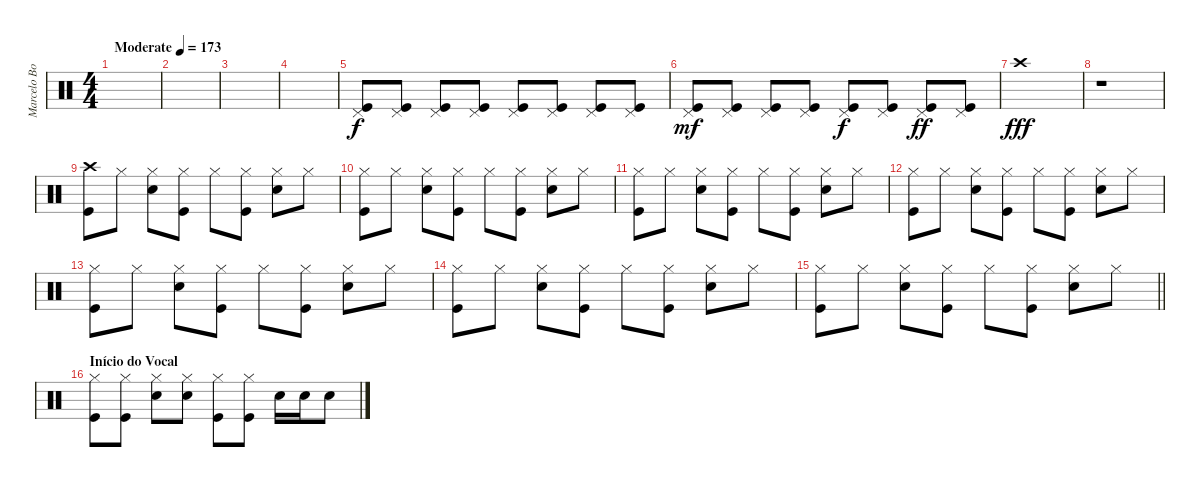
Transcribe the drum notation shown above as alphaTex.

\track ("Marcelo Bonfá (Bateria)" "Marcelo Bo") {instrument percussion}
\staff {score}
\articulation defaults
\ts (4 4)
\tempo (173 "Moderate")
\clef neutral
\ks c
|
|
|
|
("Pedal Hi-Hat (hit)" "Kick (hit)").8 ("Pedal Hi-Hat (hit)" "Kick (hit)").8 ("Pedal Hi-Hat (hit)" "Kick (hit)").8 ("Pedal Hi-Hat (hit)" "Kick (hit)").8 ("Pedal Hi-Hat (hit)" "Kick (hit)").8 ("Pedal Hi-Hat (hit)" "Kick (hit)").8 ("Pedal Hi-Hat (hit)" "Kick (hit)").8 ("Pedal Hi-Hat (hit)" "Kick (hit)").8 |
("Pedal Hi-Hat (hit)" "Kick (hit)").8{dy mf} ("Pedal Hi-Hat (hit)" "Kick (hit)").8 ("Pedal Hi-Hat (hit)" "Kick (hit)").8 ("Pedal Hi-Hat (hit)" "Kick (hit)").8 ("Pedal Hi-Hat (hit)" "Kick (hit)").8{dy f} ("Pedal Hi-Hat (hit)" "Kick (hit)").8 ("Pedal Hi-Hat (hit)" "Kick (hit)").8{dy ff} ("Pedal Hi-Hat (hit)" "Kick (hit)").8 |
"Crash high (hit)".1{dy fff} |
r.1 |
("Kick (hit)" "Crash high (hit)").8 "Hi-Hat (closed)".8 ("Snare (hit) 2" "Hi-Hat (closed)").8 ("Kick (hit)" "Hi-Hat (closed)").8 "Hi-Hat (closed)".8 ("Hi-Hat (closed)" "Kick (hit)").8 ("Snare (hit) 2" "Hi-Hat (closed)").8 "Hi-Hat (closed)".8 |
("Kick (hit)" "Hi-Hat (closed)").8 "Hi-Hat (closed)".8 ("Snare (hit) 2" "Hi-Hat (closed)").8 ("Kick (hit)" "Hi-Hat (closed)").8 "Hi-Hat (closed)".8 ("Hi-Hat (closed)" "Kick (hit)").8 ("Snare (hit) 2" "Hi-Hat (closed)").8 "Hi-Hat (closed)".8 |
("Kick (hit)" "Hi-Hat (closed)").8 "Hi-Hat (closed)".8 ("Snare (hit) 2" "Hi-Hat (closed)").8 ("Kick (hit)" "Hi-Hat (closed)").8 "Hi-Hat (closed)".8 ("Hi-Hat (closed)" "Kick (hit)").8 ("Snare (hit) 2" "Hi-Hat (closed)").8 "Hi-Hat (closed)".8 |
("Kick (hit)" "Hi-Hat (closed)").8 "Hi-Hat (closed)".8 ("Snare (hit) 2" "Hi-Hat (closed)").8 ("Kick (hit)" "Hi-Hat (closed)").8 "Hi-Hat (closed)".8 ("Hi-Hat (closed)" "Kick (hit)").8 ("Snare (hit) 2" "Hi-Hat (closed)").8 "Hi-Hat (closed)".8 |
("Kick (hit)" "Hi-Hat (closed)").8 "Hi-Hat (closed)".8 ("Snare (hit) 2" "Hi-Hat (closed)").8 ("Kick (hit)" "Hi-Hat (closed)").8 "Hi-Hat (closed)".8 ("Hi-Hat (closed)" "Kick (hit)").8 ("Snare (hit) 2" "Hi-Hat (closed)").8 "Hi-Hat (closed)".8 |
("Kick (hit)" "Hi-Hat (closed)").8 "Hi-Hat (closed)".8 ("Snare (hit) 2" "Hi-Hat (closed)").8 ("Kick (hit)" "Hi-Hat (closed)").8 "Hi-Hat (closed)".8 ("Hi-Hat (closed)" "Kick (hit)").8 ("Snare (hit) 2" "Hi-Hat (closed)").8 "Hi-Hat (closed)".8 |
\barLineRight lightlight
("Kick (hit)" "Hi-Hat (closed)").8 "Hi-Hat (closed)".8 ("Snare (hit) 2" "Hi-Hat (closed)").8 ("Kick (hit)" "Hi-Hat (closed)").8 "Hi-Hat (closed)".8 ("Hi-Hat (closed)" "Kick (hit)").8 ("Snare (hit) 2" "Hi-Hat (closed)").8 "Hi-Hat (closed)".8 |
\section ("" "Início do Vocal")
("Kick (hit)" "Hi-Hat (closed)").8 ("Kick (hit)" "Hi-Hat (closed)").8 ("Snare (hit) 2" "Hi-Hat (closed)").8 ("Snare (hit) 2" "Hi-Hat (closed)").8 ("Kick (hit)" "Hi-Hat (closed)").8 ("Kick (hit)" "Hi-Hat (closed)").8 "Snare (hit) 2".16 "Snare (hit) 2".16 "Snare (hit) 2".8
